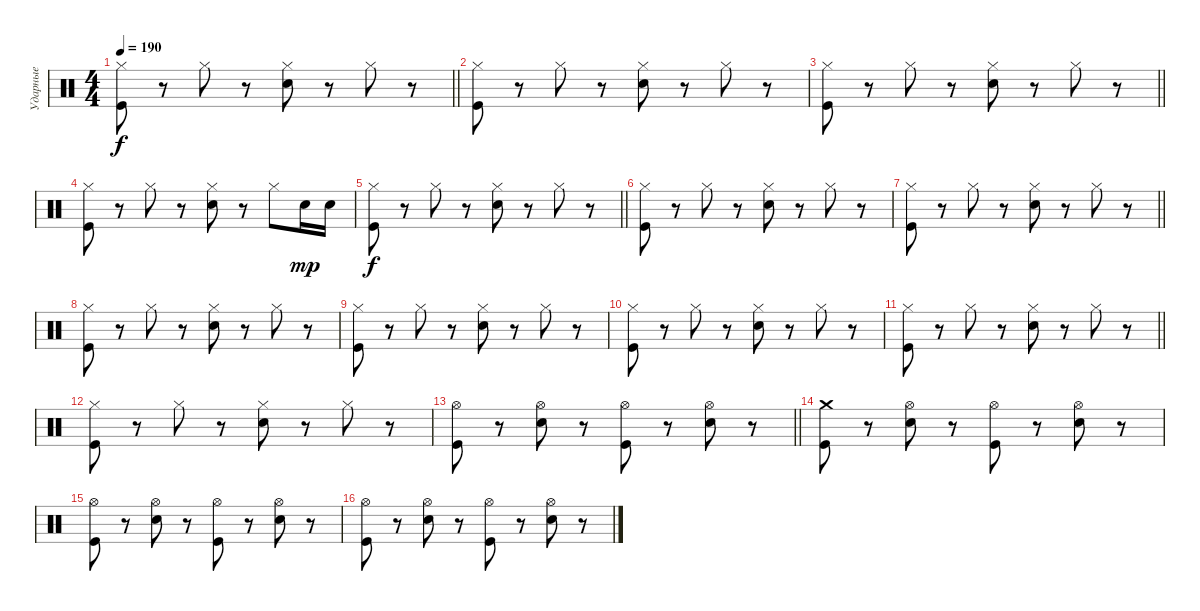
\track ("Ударные" "Ударные") {instrument percussion}
\staff {score}
\articulation defaults
\ts (4 4)
\tempo 190
\clef neutral
\barLineRight lightlight
\ks c
("Hi-Hat (closed)" "Kick (hit)").8{dy f} r.8 "Hi-Hat (closed)".8 r.8 ("Hi-Hat (closed)" "Electric Snare (hit)").8 r.8 "Hi-Hat (closed)".8 r.8 |
("Hi-Hat (closed)" "Kick (hit)").8 r.8 "Hi-Hat (closed)".8 r.8 ("Hi-Hat (closed)" "Electric Snare (hit)").8 r.8 "Hi-Hat (closed)".8 r.8 |
\barLineRight lightlight
("Hi-Hat (closed)" "Kick (hit)").8 r.8 "Hi-Hat (closed)".8 r.8 ("Hi-Hat (closed)" "Electric Snare (hit)").8 r.8 "Hi-Hat (closed)".8 r.8 |
("Hi-Hat (closed)" "Kick (hit)").8 r.8 "Hi-Hat (closed)".8 r.8 ("Hi-Hat (closed)" "Electric Snare (hit)").8 r.8 "Hi-Hat (closed)".8 "Electric Snare (hit)".16{dy mp} "Electric Snare (hit)".16 |
\barLineRight lightlight
("Hi-Hat (closed)" "Kick (hit)").8{dy f} r.8 "Hi-Hat (closed)".8 r.8 ("Hi-Hat (closed)" "Electric Snare (hit)").8 r.8 "Hi-Hat (closed)".8 r.8 |
("Hi-Hat (closed)" "Kick (hit)").8 r.8 "Hi-Hat (closed)".8 r.8 ("Hi-Hat (closed)" "Electric Snare (hit)").8 r.8 "Hi-Hat (closed)".8 r.8 |
\barLineRight lightlight
("Hi-Hat (closed)" "Kick (hit)").8 r.8 "Hi-Hat (closed)".8 r.8 ("Hi-Hat (closed)" "Electric Snare (hit)").8 r.8 "Hi-Hat (closed)".8 r.8 |
("Hi-Hat (closed)" "Kick (hit)").8 r.8 "Hi-Hat (closed)".8 r.8 ("Hi-Hat (closed)" "Electric Snare (hit)").8 r.8 "Hi-Hat (closed)".8 r.8 |
("Hi-Hat (closed)" "Kick (hit)").8 r.8 "Hi-Hat (closed)".8 r.8 ("Hi-Hat (closed)" "Electric Snare (hit)").8 r.8 "Hi-Hat (closed)".8 r.8 |
("Hi-Hat (closed)" "Kick (hit)").8 r.8 "Hi-Hat (closed)".8 r.8 ("Hi-Hat (closed)" "Electric Snare (hit)").8 r.8 "Hi-Hat (closed)".8 r.8 |
\barLineRight lightlight
("Hi-Hat (closed)" "Kick (hit)").8 r.8 "Hi-Hat (closed)".8 r.8 ("Hi-Hat (closed)" "Electric Snare (hit)").8 r.8 "Hi-Hat (closed)".8 r.8 |
("Hi-Hat (closed)" "Kick (hit)").8 r.8 "Hi-Hat (closed)".8 r.8 ("Hi-Hat (closed)" "Electric Snare (hit)").8 r.8 "Hi-Hat (closed)".8 r.8 |
\barLineRight lightlight
("Hi-Hat (open)" "Kick (hit)").8 r.8 ("Hi-Hat (open)" "Electric Snare (hit)").8 r.8 ("Hi-Hat (open)" "Kick (hit)").8 r.8 ("Hi-Hat (open)" "Electric Snare (hit)").8 r.8 |
("Crash medium (hit)" "Kick (hit)").8 r.8 ("Hi-Hat (open)" "Electric Snare (hit)").8 r.8 ("Hi-Hat (open)" "Kick (hit)").8 r.8 ("Hi-Hat (open)" "Electric Snare (hit)").8 r.8 |
("Hi-Hat (open)" "Kick (hit)").8 r.8 ("Hi-Hat (open)" "Electric Snare (hit)").8 r.8 ("Hi-Hat (open)" "Kick (hit)").8 r.8 ("Hi-Hat (open)" "Electric Snare (hit)").8 r.8 |
("Hi-Hat (open)" "Kick (hit)").8 r.8 ("Hi-Hat (open)" "Electric Snare (hit)").8 r.8 ("Hi-Hat (open)" "Kick (hit)").8 r.8 ("Hi-Hat (open)" "Electric Snare (hit)").8 r.8
